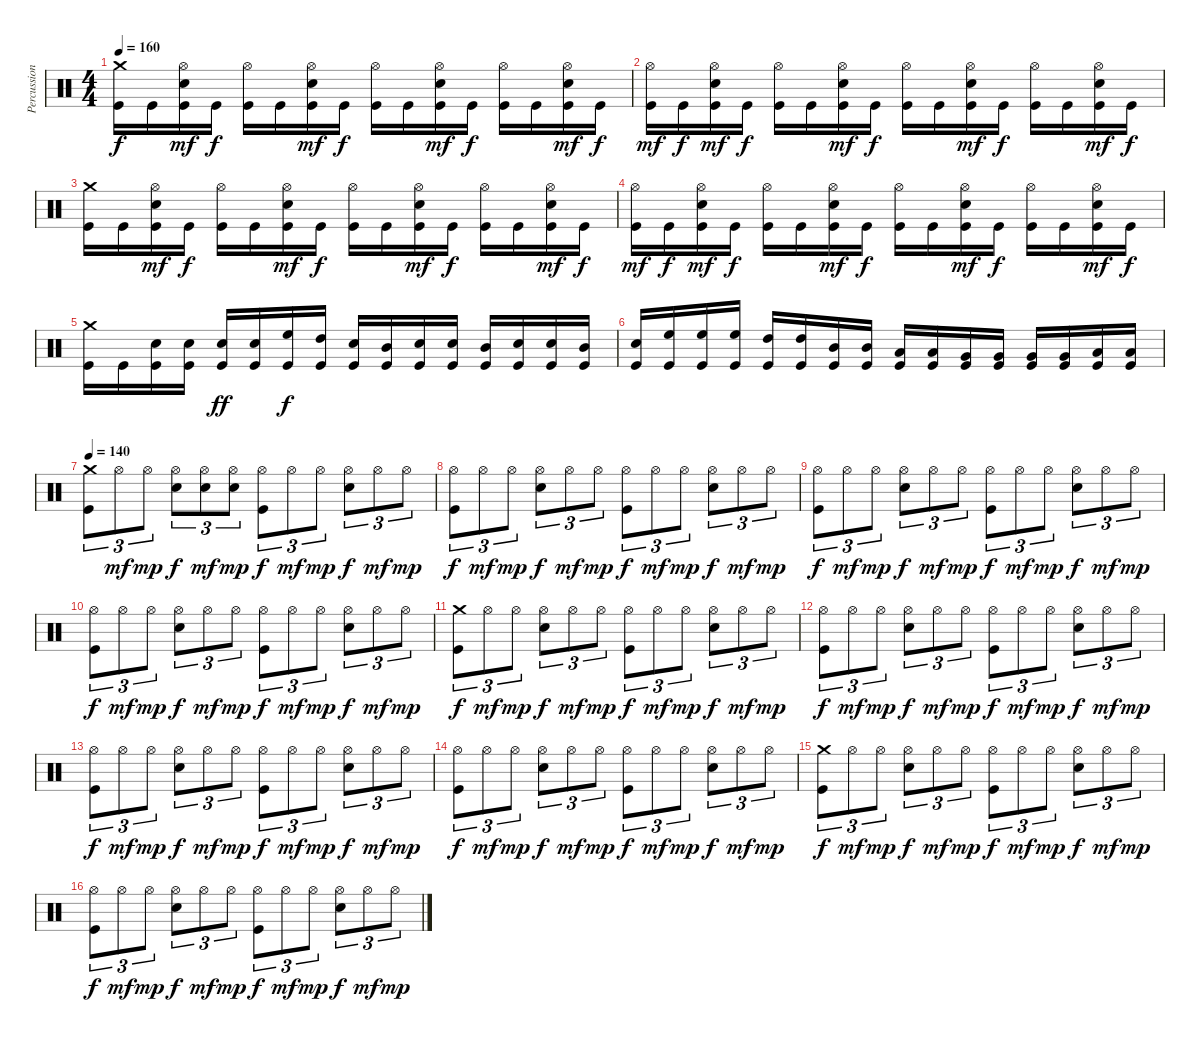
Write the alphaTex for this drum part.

\track ("Percussions" "Percussion") {instrument percussion}
\staff {score}
\articulation defaults
\ts (4 4)
\tempo 160
\clef neutral
\ks c
("Crash medium (hit)" "Kick (hit)").16{dy f} "Kick (hit)".16 ("Hi-Hat (open)" "Electric Snare (hit)" "Kick (hit)").16{dy mf} "Kick (hit)".16{dy f} ("Hi-Hat (open)" "Kick (hit)").16 "Kick (hit)".16 ("Hi-Hat (open)" "Electric Snare (hit)" "Kick (hit)").16{dy mf} "Kick (hit)".16{dy f} ("Hi-Hat (open)" "Kick (hit)").16 "Kick (hit)".16 ("Hi-Hat (open)" "Electric Snare (hit)" "Kick (hit)").16{dy mf} "Kick (hit)".16{dy f} ("Hi-Hat (open)" "Kick (hit)").16 "Kick (hit)".16 ("Hi-Hat (open)" "Electric Snare (hit)" "Kick (hit)").16{dy mf} "Kick (hit)".16{dy f} |
("Hi-Hat (open)" "Kick (hit)").16{dy mf} "Kick (hit)".16{dy f} ("Hi-Hat (open)" "Electric Snare (hit)" "Kick (hit)").16{dy mf} "Kick (hit)".16{dy f} ("Hi-Hat (open)" "Kick (hit)").16 "Kick (hit)".16 ("Hi-Hat (open)" "Electric Snare (hit)" "Kick (hit)").16{dy mf} "Kick (hit)".16{dy f} ("Hi-Hat (open)" "Kick (hit)").16 "Kick (hit)".16 ("Hi-Hat (open)" "Electric Snare (hit)" "Kick (hit)").16{dy mf} "Kick (hit)".16{dy f} ("Hi-Hat (open)" "Kick (hit)").16 "Kick (hit)".16 ("Hi-Hat (open)" "Electric Snare (hit)" "Kick (hit)").16{dy mf} "Kick (hit)".16{dy f} |
("Crash medium (hit)" "Kick (hit)").16 "Kick (hit)".16 ("Hi-Hat (open)" "Electric Snare (hit)" "Kick (hit)").16{dy mf} "Kick (hit)".16{dy f} ("Hi-Hat (open)" "Kick (hit)").16 "Kick (hit)".16 ("Hi-Hat (open)" "Electric Snare (hit)" "Kick (hit)").16{dy mf} "Kick (hit)".16{dy f} ("Hi-Hat (open)" "Kick (hit)").16 "Kick (hit)".16 ("Hi-Hat (open)" "Electric Snare (hit)" "Kick (hit)").16{dy mf} "Kick (hit)".16{dy f} ("Hi-Hat (open)" "Kick (hit)").16 "Kick (hit)".16 ("Hi-Hat (open)" "Electric Snare (hit)" "Kick (hit)").16{dy mf} "Kick (hit)".16{dy f} |
("Hi-Hat (open)" "Kick (hit)").16{dy mf} "Kick (hit)".16{dy f} ("Hi-Hat (open)" "Electric Snare (hit)" "Kick (hit)").16{dy mf} "Kick (hit)".16{dy f} ("Hi-Hat (open)" "Kick (hit)").16 "Kick (hit)".16 ("Hi-Hat (open)" "Electric Snare (hit)" "Kick (hit)").16{dy mf} "Kick (hit)".16{dy f} ("Hi-Hat (open)" "Kick (hit)").16 "Kick (hit)".16 ("Hi-Hat (open)" "Electric Snare (hit)" "Kick (hit)").16{dy mf} "Kick (hit)".16{dy f} ("Hi-Hat (open)" "Kick (hit)").16 "Kick (hit)".16 ("Hi-Hat (open)" "Electric Snare (hit)" "Kick (hit)").16{dy mf} "Kick (hit)".16{dy f} |
("Crash medium (hit)" "Kick (hit)").16 "Kick (hit)".16 ("Electric Snare (hit)" "Kick (hit)").16 ("Electric Snare (hit)" "Kick (hit)").16 ("Electric Snare (hit)" "Kick (hit)").16{dy ff} ("Electric Snare (hit)" "Kick (hit)").16 ("High Floor Tom (hit)" "Kick (hit)").16{dy f} ("High Tom (hit)" "Kick (hit)").16 ("Electric Snare (hit)" "Kick (hit)").16 ("Mid Tom (hit)" "Kick (hit)").16 ("Electric Snare (hit)" "Kick (hit)").16 ("Electric Snare (hit)" "Kick (hit)").16 ("Mid Tom (hit)" "Kick (hit)").16 ("Electric Snare (hit)" "Kick (hit)").16 ("Electric Snare (hit)" "Kick (hit)").16 ("Mid Tom (hit)" "Kick (hit)").16 |
("Electric Snare (hit)" "Kick (hit)").16 ("High Floor Tom (hit)" "Kick (hit)").16 ("High Floor Tom (hit)" "Kick (hit)").16 ("High Floor Tom (hit)" "Kick (hit)").16 ("High Tom (hit)" "Kick (hit)").16 ("High Tom (hit)" "Kick (hit)").16 ("Mid Tom (hit)" "Kick (hit)").16 ("Mid Tom (hit)" "Kick (hit)").16 ("Low Tom (hit)" "Kick (hit)").16 ("Low Tom (hit)" "Kick (hit)").16 ("Very Low Tom (hit)" "Kick (hit)").16 ("Very Low Tom (hit)" "Kick (hit)").16 ("Very Low Tom (hit)" "Kick (hit)").16 ("Very Low Tom (hit)" "Kick (hit)").16 ("Low Floor Tom (hit)" "Kick (hit)").16 ("Low Floor Tom (hit)" "Kick (hit)").16 |
\tempo 140
("Crash medium (hit)" "Kick (hit)").8{tu (3 2)} "Hi-Hat (open)".8{tu (3 2) dy mf} "Hi-Hat (open)".8{tu (3 2) dy mp} ("Hi-Hat (open)" "Electric Snare (hit)").8{tu (3 2) dy f} ("Hi-Hat (open)" "Snare (hit)").8{tu (3 2) dy mf} ("Hi-Hat (open)" "Snare (hit)").8{tu (3 2) dy mp} ("Hi-Hat (open)" "Kick (hit)").8{tu (3 2) dy f} "Hi-Hat (open)".8{tu (3 2) dy mf} "Hi-Hat (open)".8{tu (3 2) dy mp} ("Hi-Hat (open)" "Electric Snare (hit)").8{tu (3 2) dy f} "Hi-Hat (open)".8{tu (3 2) dy mf} "Hi-Hat (open)".8{tu (3 2) dy mp} |
("Hi-Hat (open)" "Kick (hit)").8{tu (3 2) dy f} "Hi-Hat (open)".8{tu (3 2) dy mf} "Hi-Hat (open)".8{tu (3 2) dy mp} ("Hi-Hat (open)" "Electric Snare (hit)").8{tu (3 2) dy f} "Hi-Hat (open)".8{tu (3 2) dy mf} "Hi-Hat (open)".8{tu (3 2) dy mp} ("Hi-Hat (open)" "Kick (hit)").8{tu (3 2) dy f} "Hi-Hat (open)".8{tu (3 2) dy mf} "Hi-Hat (open)".8{tu (3 2) dy mp} ("Hi-Hat (open)" "Electric Snare (hit)").8{tu (3 2) dy f} "Hi-Hat (open)".8{tu (3 2) dy mf} "Hi-Hat (open)".8{tu (3 2) dy mp} |
("Hi-Hat (open)" "Kick (hit)").8{tu (3 2) dy f} "Hi-Hat (open)".8{tu (3 2) dy mf} "Hi-Hat (open)".8{tu (3 2) dy mp} ("Hi-Hat (open)" "Electric Snare (hit)").8{tu (3 2) dy f} "Hi-Hat (open)".8{tu (3 2) dy mf} "Hi-Hat (open)".8{tu (3 2) dy mp} ("Hi-Hat (open)" "Kick (hit)").8{tu (3 2) dy f} "Hi-Hat (open)".8{tu (3 2) dy mf} "Hi-Hat (open)".8{tu (3 2) dy mp} ("Hi-Hat (open)" "Electric Snare (hit)").8{tu (3 2) dy f} "Hi-Hat (open)".8{tu (3 2) dy mf} "Hi-Hat (open)".8{tu (3 2) dy mp} |
("Hi-Hat (open)" "Kick (hit)").8{tu (3 2) dy f} "Hi-Hat (open)".8{tu (3 2) dy mf} "Hi-Hat (open)".8{tu (3 2) dy mp} ("Hi-Hat (open)" "Electric Snare (hit)").8{tu (3 2) dy f} "Hi-Hat (open)".8{tu (3 2) dy mf} "Hi-Hat (open)".8{tu (3 2) dy mp} ("Hi-Hat (open)" "Kick (hit)").8{tu (3 2) dy f} "Hi-Hat (open)".8{tu (3 2) dy mf} "Hi-Hat (open)".8{tu (3 2) dy mp} ("Hi-Hat (open)" "Electric Snare (hit)").8{tu (3 2) dy f} "Hi-Hat (open)".8{tu (3 2) dy mf} "Hi-Hat (open)".8{tu (3 2) dy mp} |
("Crash medium (hit)" "Kick (hit)").8{tu (3 2) dy f} "Hi-Hat (open)".8{tu (3 2) dy mf} "Hi-Hat (open)".8{tu (3 2) dy mp} ("Hi-Hat (open)" "Electric Snare (hit)").8{tu (3 2) dy f} "Hi-Hat (open)".8{tu (3 2) dy mf} "Hi-Hat (open)".8{tu (3 2) dy mp} ("Hi-Hat (open)" "Kick (hit)").8{tu (3 2) dy f} "Hi-Hat (open)".8{tu (3 2) dy mf} "Hi-Hat (open)".8{tu (3 2) dy mp} ("Hi-Hat (open)" "Electric Snare (hit)").8{tu (3 2) dy f} "Hi-Hat (open)".8{tu (3 2) dy mf} "Hi-Hat (open)".8{tu (3 2) dy mp} |
("Hi-Hat (open)" "Kick (hit)").8{tu (3 2) dy f} "Hi-Hat (open)".8{tu (3 2) dy mf} "Hi-Hat (open)".8{tu (3 2) dy mp} ("Hi-Hat (open)" "Electric Snare (hit)").8{tu (3 2) dy f} "Hi-Hat (open)".8{tu (3 2) dy mf} "Hi-Hat (open)".8{tu (3 2) dy mp} ("Hi-Hat (open)" "Kick (hit)").8{tu (3 2) dy f} "Hi-Hat (open)".8{tu (3 2) dy mf} "Hi-Hat (open)".8{tu (3 2) dy mp} ("Hi-Hat (open)" "Electric Snare (hit)").8{tu (3 2) dy f} "Hi-Hat (open)".8{tu (3 2) dy mf} "Hi-Hat (open)".8{tu (3 2) dy mp} |
("Hi-Hat (open)" "Kick (hit)").8{tu (3 2) dy f} "Hi-Hat (open)".8{tu (3 2) dy mf} "Hi-Hat (open)".8{tu (3 2) dy mp} ("Hi-Hat (open)" "Electric Snare (hit)").8{tu (3 2) dy f} "Hi-Hat (open)".8{tu (3 2) dy mf} "Hi-Hat (open)".8{tu (3 2) dy mp} ("Hi-Hat (open)" "Kick (hit)").8{tu (3 2) dy f} "Hi-Hat (open)".8{tu (3 2) dy mf} "Hi-Hat (open)".8{tu (3 2) dy mp} ("Hi-Hat (open)" "Electric Snare (hit)").8{tu (3 2) dy f} "Hi-Hat (open)".8{tu (3 2) dy mf} "Hi-Hat (open)".8{tu (3 2) dy mp} |
("Hi-Hat (open)" "Kick (hit)").8{tu (3 2) dy f} "Hi-Hat (open)".8{tu (3 2) dy mf} "Hi-Hat (open)".8{tu (3 2) dy mp} ("Hi-Hat (open)" "Electric Snare (hit)").8{tu (3 2) dy f} "Hi-Hat (open)".8{tu (3 2) dy mf} "Hi-Hat (open)".8{tu (3 2) dy mp} ("Hi-Hat (open)" "Kick (hit)").8{tu (3 2) dy f} "Hi-Hat (open)".8{tu (3 2) dy mf} "Hi-Hat (open)".8{tu (3 2) dy mp} ("Hi-Hat (open)" "Electric Snare (hit)").8{tu (3 2) dy f} "Hi-Hat (open)".8{tu (3 2) dy mf} "Hi-Hat (open)".8{tu (3 2) dy mp} |
("Crash medium (hit)" "Kick (hit)").8{tu (3 2) dy f} "Hi-Hat (open)".8{tu (3 2) dy mf} "Hi-Hat (open)".8{tu (3 2) dy mp} ("Hi-Hat (open)" "Electric Snare (hit)").8{tu (3 2) dy f} "Hi-Hat (open)".8{tu (3 2) dy mf} "Hi-Hat (open)".8{tu (3 2) dy mp} ("Hi-Hat (open)" "Kick (hit)").8{tu (3 2) dy f} "Hi-Hat (open)".8{tu (3 2) dy mf} "Hi-Hat (open)".8{tu (3 2) dy mp} ("Hi-Hat (open)" "Electric Snare (hit)").8{tu (3 2) dy f} "Hi-Hat (open)".8{tu (3 2) dy mf} "Hi-Hat (open)".8{tu (3 2) dy mp} |
("Hi-Hat (open)" "Kick (hit)").8{tu (3 2) dy f} "Hi-Hat (open)".8{tu (3 2) dy mf} "Hi-Hat (open)".8{tu (3 2) dy mp} ("Hi-Hat (open)" "Electric Snare (hit)").8{tu (3 2) dy f} "Hi-Hat (open)".8{tu (3 2) dy mf} "Hi-Hat (open)".8{tu (3 2) dy mp} ("Hi-Hat (open)" "Kick (hit)").8{tu (3 2) dy f} "Hi-Hat (open)".8{tu (3 2) dy mf} "Hi-Hat (open)".8{tu (3 2) dy mp} ("Hi-Hat (open)" "Electric Snare (hit)").8{tu (3 2) dy f} "Hi-Hat (open)".8{tu (3 2) dy mf} "Hi-Hat (open)".8{tu (3 2) dy mp}
